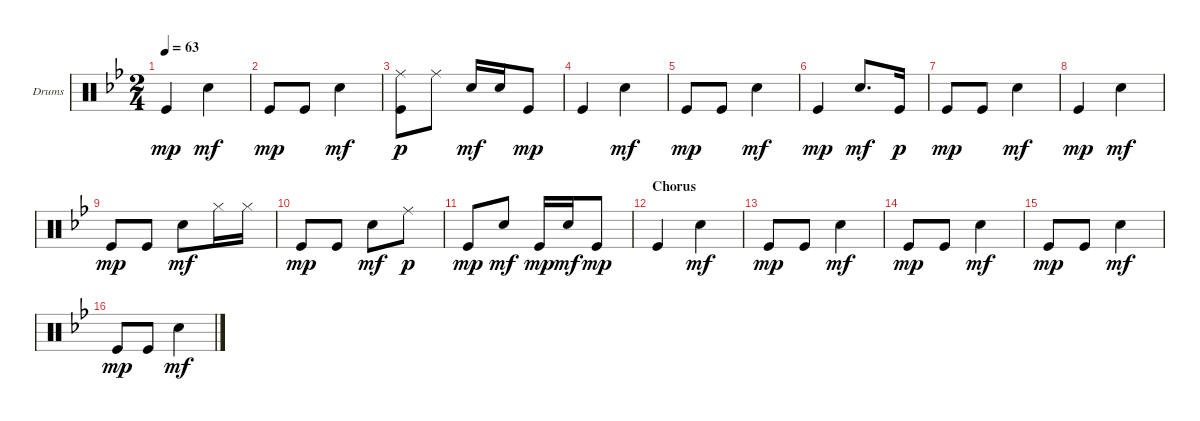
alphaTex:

\defaultSystemsLayout 4
\bracketExtendMode groupsimilarinstruments
\firstSystemTrackNameOrientation horizontal
\otherSystemsTrackNameOrientation horizontal
\track ("Drumkit" "Drums") {instrument percussion}
\staff {score}
\articulation defaults
\ts (2 4)
\tempo 63
\clef neutral
\ks bb "Kick (hit)".4{dy mp} "Snare (hit) 2".4{dy mf}
|
"Kick (hit)".8{dy mp} "Kick (hit)".8 "Snare (hit) 2".4{dy mf} |
("Kick (hit)" "Ride (middle)").8{dy p} "Ride (middle)".8 "Snare (hit) 2".16{dy mf} "Snare (hit) 2".16 "Kick (hit)".8{dy mp} |
\scale
0.193416 "Kick (hit)".4 "Snare (hit) 2".4{dy mf} |
\scale
0.115226 "Kick (hit)".8{dy mp} "Kick (hit)".8 "Snare (hit) 2".4{dy mf} |
\scale
0.115226 "Kick (hit)".4{dy mp} "Snare (hit) 2".8{d dy mf} "Kick (hit)".16{dy p} |
\scale
0.115226 "Kick (hit)".8{dy mp} "Kick (hit)".8 "Snare (hit) 2".4{dy mf} |
\scale
0.115226 "Kick (hit)".4{dy mp} "Snare (hit) 2".4{dy mf} |
\scale
0.115226 "Kick (hit)".8{dy mp} "Kick (hit)".8 "Snare (hit) 2".8{dy mf} "Hi-Hat (closed)".16 "Hi-Hat (closed)".16 |
\scale
0.115226 "Kick (hit)".8{dy mp} "Kick (hit)".8 "Snare (hit) 2".8{dy mf} "Ride (middle)".8{dy p} |
\scale
0.115226 "Kick (hit)".8{dy mp} "Snare (hit) 2".8{dy mf} "Kick (hit)".16{dy mp} "Snare (hit) 2".16{dy mf} "Kick (hit)".8{dy mp} |
\section ("" "Chorus")
"Kick (hit)".4 "Snare (hit) 2".4{dy mf} |
"Kick (hit)".8{dy mp} "Kick (hit)".8 "Snare (hit) 2".4{dy mf} |
"Kick (hit)".8{dy mp} "Kick (hit)".8 "Snare (hit) 2".4{dy mf} |
"Kick (hit)".8{dy mp} "Kick (hit)".8 "Snare (hit) 2".4{dy mf} |
"Kick (hit)".8{dy mp} "Kick (hit)".8 "Snare (hit) 2".4{dy mf}
